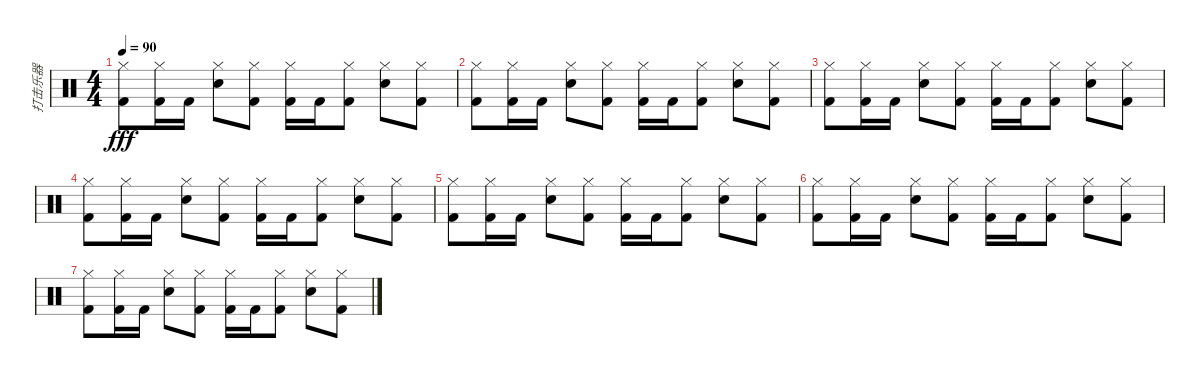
\track ("打击乐器" "打击乐器") {instrument percussion}
\staff {score}
\articulation defaults
\ts (4 4)
\tempo 90
\clef neutral
\ks c
("Hi-Hat (closed)" "Kick (hit) 2").8{dy fff} ("Hi-Hat (closed)" "Kick (hit) 2").16 "Kick (hit) 2".16 ("Hi-Hat (closed)" "Electric Snare (hit)").8 ("Hi-Hat (closed)" "Kick (hit) 2").8 ("Hi-Hat (closed)" "Kick (hit) 2").16 "Kick (hit) 2".16 ("Hi-Hat (closed)" "Kick (hit) 2").8 ("Hi-Hat (closed)" "Electric Snare (hit)").8 ("Hi-Hat (closed)" "Kick (hit) 2").8 |
("Hi-Hat (closed)" "Kick (hit) 2").8 ("Hi-Hat (closed)" "Kick (hit) 2").16 "Kick (hit) 2".16 ("Hi-Hat (closed)" "Electric Snare (hit)").8 ("Hi-Hat (closed)" "Kick (hit) 2").8 ("Hi-Hat (closed)" "Kick (hit) 2").16 "Kick (hit) 2".16 ("Hi-Hat (closed)" "Kick (hit) 2").8 ("Hi-Hat (closed)" "Electric Snare (hit)").8 ("Hi-Hat (closed)" "Kick (hit) 2").8 |
("Hi-Hat (closed)" "Kick (hit) 2").8 ("Hi-Hat (closed)" "Kick (hit) 2").16 "Kick (hit) 2".16 ("Hi-Hat (closed)" "Electric Snare (hit)").8 ("Hi-Hat (closed)" "Kick (hit) 2").8 ("Hi-Hat (closed)" "Kick (hit) 2").16 "Kick (hit) 2".16 ("Hi-Hat (closed)" "Kick (hit) 2").8 ("Hi-Hat (closed)" "Electric Snare (hit)").8 ("Hi-Hat (closed)" "Kick (hit) 2").8 |
("Hi-Hat (closed)" "Kick (hit) 2").8 ("Hi-Hat (closed)" "Kick (hit) 2").16 "Kick (hit) 2".16 ("Hi-Hat (closed)" "Electric Snare (hit)").8 ("Hi-Hat (closed)" "Kick (hit) 2").8 ("Hi-Hat (closed)" "Kick (hit) 2").16 "Kick (hit) 2".16 ("Hi-Hat (closed)" "Kick (hit) 2").8 ("Hi-Hat (closed)" "Electric Snare (hit)").8 ("Hi-Hat (closed)" "Kick (hit) 2").8 |
("Hi-Hat (closed)" "Kick (hit) 2").8 ("Hi-Hat (closed)" "Kick (hit) 2").16 "Kick (hit) 2".16 ("Hi-Hat (closed)" "Electric Snare (hit)").8 ("Hi-Hat (closed)" "Kick (hit) 2").8 ("Hi-Hat (closed)" "Kick (hit) 2").16 "Kick (hit) 2".16 ("Hi-Hat (closed)" "Kick (hit) 2").8 ("Hi-Hat (closed)" "Electric Snare (hit)").8 ("Hi-Hat (closed)" "Kick (hit) 2").8 |
("Hi-Hat (closed)" "Kick (hit) 2").8 ("Hi-Hat (closed)" "Kick (hit) 2").16 "Kick (hit) 2".16 ("Hi-Hat (closed)" "Electric Snare (hit)").8 ("Hi-Hat (closed)" "Kick (hit) 2").8 ("Hi-Hat (closed)" "Kick (hit) 2").16 "Kick (hit) 2".16 ("Hi-Hat (closed)" "Kick (hit) 2").8 ("Hi-Hat (closed)" "Electric Snare (hit)").8 ("Hi-Hat (closed)" "Kick (hit) 2").8 |
("Hi-Hat (closed)" "Kick (hit) 2").8 ("Hi-Hat (closed)" "Kick (hit) 2").16 "Kick (hit) 2".16 ("Hi-Hat (closed)" "Electric Snare (hit)").8 ("Hi-Hat (closed)" "Kick (hit) 2").8 ("Hi-Hat (closed)" "Kick (hit) 2").16 "Kick (hit) 2".16 ("Hi-Hat (closed)" "Kick (hit) 2").8 ("Hi-Hat (closed)" "Electric Snare (hit)").8 ("Hi-Hat (closed)" "Kick (hit) 2").8
